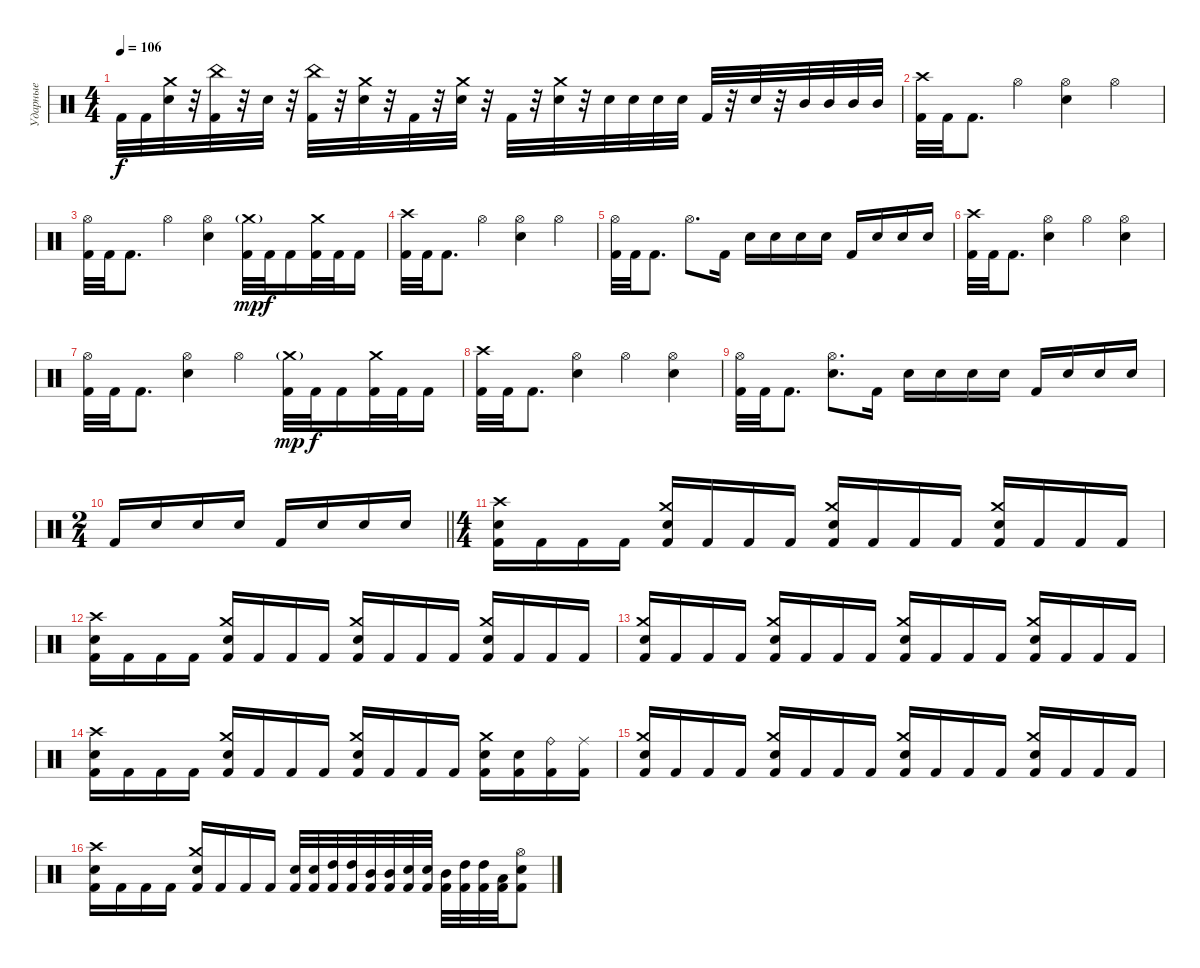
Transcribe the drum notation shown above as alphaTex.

\track ("Ударные" "Ударные") {instrument percussion}
\staff {score}
\articulation defaults
\ts (4 4)
\tempo 106
\clef neutral
\ks c "Kick (hit) 2".32{dy f} "Kick (hit) 2".32
("Crash medium (hit)" "Electric Snare (hit)").32 r.32 ("China (hit)" "Kick (hit) 2").32 r.32 "Electric Snare (hit)".32 r.32 ("China (hit)" "Kick (hit) 2").32 r.32 ("Crash medium (hit)" "Electric Snare (hit)").32 r.32 "Kick (hit) 2".32 r.32 ("Crash medium (hit)" "Electric Snare (hit)").32 r.32 "Kick (hit) 2".32 r.32 ("Crash medium (hit)" "Electric Snare (hit)").32 r.32 "Electric Snare (hit)".32 "Electric Snare (hit)".32 "Electric Snare (hit)".32 "Electric Snare (hit)".32 "Kick (hit) 2".32 r.32 "Electric Snare (hit)".32 r.32 "Mid Tom (hit)".32 "Mid Tom (hit)".32 "Mid Tom (hit)".32 "Mid Tom (hit)".32 |
("Crash high (hit)" "Kick (hit) 2").32 "Kick (hit) 2".32 "Kick (hit) 2".8{d} "Hi-Hat (open)".4 ("Hi-Hat (open)" "Electric Snare (hit)").4 "Hi-Hat (open)".4 |
("Hi-Hat (open)" "Kick (hit) 2").32 "Kick (hit) 2".32 "Kick (hit) 2".8{d} "Hi-Hat (open)".4 ("Hi-Hat (open)" "Electric Snare (hit)").4 ("Crash medium (hit)"{g} "Kick (hit) 2").32{dy mp} "Kick (hit) 2".32{dy f} "Kick (hit) 2".16 ("Crash medium (hit)" "Kick (hit) 2").32 "Kick (hit) 2".32 "Kick (hit) 2".16 |
("Crash high (hit)" "Kick (hit) 2").32 "Kick (hit) 2".32 "Kick (hit) 2".8{d} "Hi-Hat (open)".4 ("Hi-Hat (open)" "Electric Snare (hit)").4 "Hi-Hat (open)".4 |
("Hi-Hat (open)" "Kick (hit) 2").32 "Kick (hit) 2".32 "Kick (hit) 2".8{d} "Hi-Hat (open)".8{d} "Kick (hit) 2".16 "Electric Snare (hit)".16 "Electric Snare (hit)".16 "Electric Snare (hit)".16 "Electric Snare (hit)".16 "Kick (hit) 2".16 "Electric Snare (hit)".16 "Electric Snare (hit)".16 "Electric Snare (hit)".16 |
("Crash high (hit)" "Kick (hit) 2").32 "Kick (hit) 2".32 "Kick (hit) 2".8{d} ("Hi-Hat (open)" "Electric Snare (hit)").4 "Hi-Hat (open)".4 ("Hi-Hat (open)" "Electric Snare (hit)").4 |
("Hi-Hat (open)" "Kick (hit) 2").32 "Kick (hit) 2".32 "Kick (hit) 2".8{d} ("Hi-Hat (open)" "Electric Snare (hit)").4 "Hi-Hat (open)".4 ("Crash medium (hit)"{g} "Kick (hit) 2").32{dy mp} "Kick (hit) 2".32{dy f} "Kick (hit) 2".16 ("Crash medium (hit)" "Kick (hit) 2").32 "Kick (hit) 2".32 "Kick (hit) 2".16 |
("Crash high (hit)" "Kick (hit) 2").32 "Kick (hit) 2".32 "Kick (hit) 2".8{d} ("Hi-Hat (open)" "Electric Snare (hit)").4 "Hi-Hat (open)".4 ("Hi-Hat (open)" "Electric Snare (hit)").4 |
("Hi-Hat (open)" "Kick (hit) 2").32 "Kick (hit) 2".32 "Kick (hit) 2".8{d} ("Hi-Hat (open)" "Electric Snare (hit)").8{d} "Kick (hit) 2".16 "Electric Snare (hit)".16 "Electric Snare (hit)".16 "Electric Snare (hit)".16 "Electric Snare (hit)".16 "Kick (hit) 2".16 "Electric Snare (hit)".16 "Electric Snare (hit)".16 "Electric Snare (hit)".16 |
\ts (2 4)
\barLineRight lightlight "Kick (hit) 2".16 "Electric Snare (hit)".16 "Electric Snare (hit)".16 "Electric Snare (hit)".16 "Kick (hit) 2".16 "Electric Snare (hit)".16 "Electric Snare (hit)".16 "Electric Snare (hit)".16
|
\ts (4 4)
("Crash high (hit)" "Electric Snare (hit)" "Kick (hit) 2").16 "Kick (hit) 2".16 "Kick (hit) 2".16 "Kick (hit) 2".16 ("Crash medium (hit)" "Electric Snare (hit)" "Kick (hit) 2").16 "Kick (hit) 2".16 "Kick (hit) 2".16 "Kick (hit) 2".16 ("Crash medium (hit)" "Electric Snare (hit)" "Kick (hit) 2").16 "Kick (hit) 2".16 "Kick (hit) 2".16 "Kick (hit) 2".16 ("Crash medium (hit)" "Electric Snare (hit)" "Kick (hit) 2").16 "Kick (hit) 2".16 "Kick (hit) 2".16 "Kick (hit) 2".16 |
("Crash high (hit)" "Electric Snare (hit)" "Kick (hit) 2").16 "Kick (hit) 2".16 "Kick (hit) 2".16 "Kick (hit) 2".16 ("Crash medium (hit)" "Electric Snare (hit)" "Kick (hit) 2").16 "Kick (hit) 2".16 "Kick (hit) 2".16 "Kick (hit) 2".16 ("Crash medium (hit)" "Electric Snare (hit)" "Kick (hit) 2").16 "Kick (hit) 2".16 "Kick (hit) 2".16 "Kick (hit) 2".16 ("Crash medium (hit)" "Electric Snare (hit)" "Kick (hit) 2").16 "Kick (hit) 2".16 "Kick (hit) 2".16 "Kick (hit) 2".16 |
("Crash medium (hit)" "Electric Snare (hit)" "Kick (hit) 2").16 "Kick (hit) 2".16 "Kick (hit) 2".16 "Kick (hit) 2".16 ("Crash medium (hit)" "Electric Snare (hit)" "Kick (hit) 2").16 "Kick (hit) 2".16 "Kick (hit) 2".16 "Kick (hit) 2".16 ("Crash medium (hit)" "Electric Snare (hit)" "Kick (hit) 2").16 "Kick (hit) 2".16 "Kick (hit) 2".16 "Kick (hit) 2".16 ("Crash medium (hit)" "Electric Snare (hit)" "Kick (hit) 2").16 "Kick (hit) 2".16 "Kick (hit) 2".16 "Kick (hit) 2".16 |
("Crash high (hit)" "Electric Snare (hit)" "Kick (hit) 2").16 "Kick (hit) 2".16 "Kick (hit) 2".16 "Kick (hit) 2".16 ("Crash medium (hit)" "Electric Snare (hit)" "Kick (hit) 2").16 "Kick (hit) 2".16 "Kick (hit) 2".16 "Kick (hit) 2".16 ("Crash medium (hit)" "Electric Snare (hit)" "Kick (hit) 2").16 "Kick (hit) 2".16 "Kick (hit) 2".16 "Kick (hit) 2".16 ("Crash medium (hit)" "Electric Snare (hit)" "Kick (hit) 2").16 ("Electric Snare (hit)" "Kick (hit) 2").16 ("Ride (bell)" "Kick (hit) 2").16 ("Ride (middle)" "Kick (hit) 2").16 |
("Crash medium (hit)" "Electric Snare (hit)" "Kick (hit) 2").16 "Kick (hit) 2".16 "Kick (hit) 2".16 "Kick (hit) 2".16 ("Crash medium (hit)" "Electric Snare (hit)" "Kick (hit) 2").16 "Kick (hit) 2".16 "Kick (hit) 2".16 "Kick (hit) 2".16 ("Crash medium (hit)" "Electric Snare (hit)" "Kick (hit) 2").16 "Kick (hit) 2".16 "Kick (hit) 2".16 "Kick (hit) 2".16 ("Crash medium (hit)" "Electric Snare (hit)" "Kick (hit) 2").16 "Kick (hit) 2".16 "Kick (hit) 2".16 "Kick (hit) 2".16 |
("Crash high (hit)" "Electric Snare (hit)" "Kick (hit) 2").16 "Kick (hit) 2".16 "Kick (hit) 2".16 "Kick (hit) 2".16 ("Crash medium (hit)" "Electric Snare (hit)" "Kick (hit) 2").16 "Kick (hit) 2".16 "Kick (hit) 2".16 "Kick (hit) 2".16 ("Electric Snare (hit)" "Kick (hit) 2").32 ("Electric Snare (hit)" "Kick (hit) 2").32 ("High Tom (hit)" "Kick (hit) 2").32 ("High Tom (hit)" "Kick (hit) 2").32 ("Mid Tom (hit)" "Kick (hit) 2").32 ("Mid Tom (hit)" "Kick (hit) 2").32 ("Electric Snare (hit)" "Kick (hit) 2").32 ("Electric Snare (hit)" "Kick (hit) 2").32 ("Mid Tom (hit)" "Kick (hit) 2").32 ("High Tom (hit)" "Kick (hit) 2").32 ("High Tom (hit)" "Kick (hit) 2").32 ("Low Tom (hit)" "Kick (hit) 2").32 ("Hi-Hat (open)" "Electric Snare (hit)" "Kick (hit) 2").8
